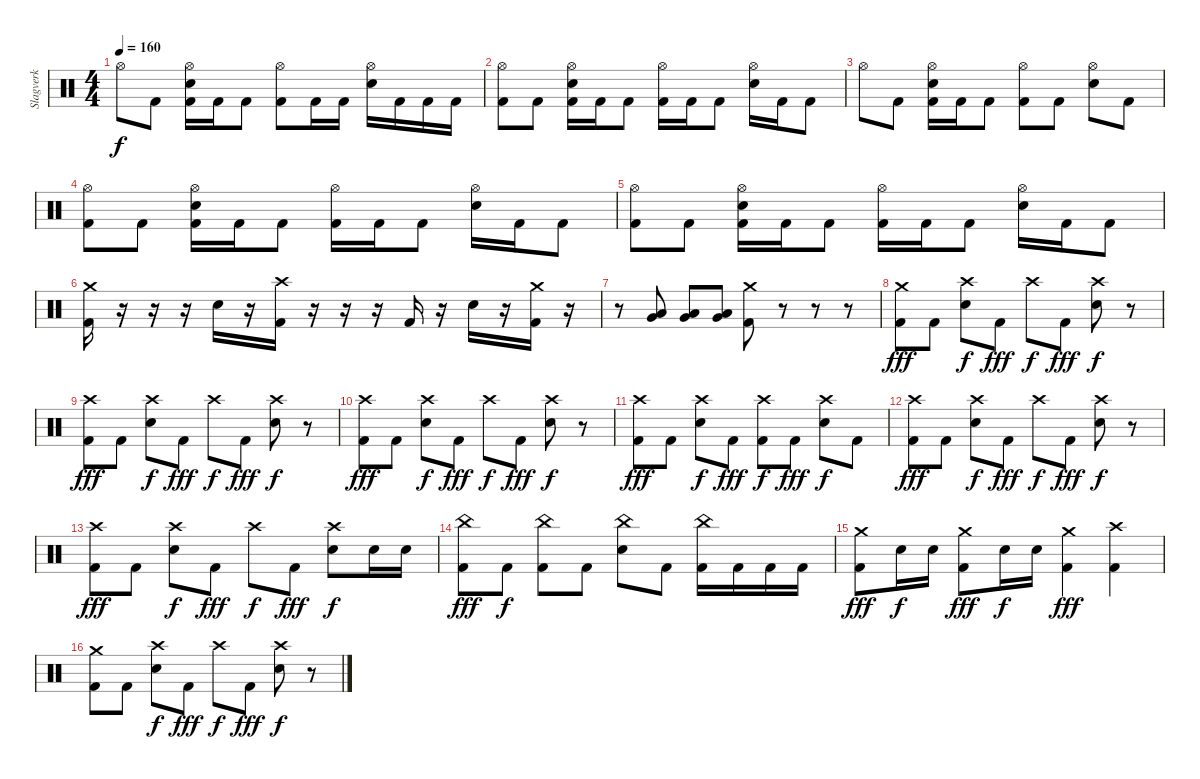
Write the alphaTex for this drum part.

\track ("Slagverk" "Slagverk") {instrument percussion}
\staff {score}
\articulation defaults
\ts (4 4)
\tempo 160
\clef neutral
\ks c "Hi-Hat (open)".8{dy f} "Kick (hit) 2".8
("Hi-Hat (open)" "Snare (hit) 2" "Kick (hit) 2").16 "Kick (hit) 2".16 "Kick (hit) 2".8 ("Hi-Hat (open)" "Kick (hit) 2").8 "Kick (hit) 2".16 "Kick (hit) 2".16 ("Hi-Hat (open)" "Snare (hit) 2").16 "Kick (hit) 2".16 "Kick (hit) 2".16 "Kick (hit) 2".16 |
("Hi-Hat (open)" "Kick (hit) 2").8 "Kick (hit) 2".8 ("Hi-Hat (open)" "Snare (hit) 2" "Kick (hit) 2").16 "Kick (hit) 2".16 "Kick (hit) 2".8 ("Hi-Hat (open)" "Kick (hit) 2").16 "Kick (hit) 2".16 "Kick (hit) 2".8 ("Hi-Hat (open)" "Snare (hit) 2").16 "Kick (hit) 2".16 "Kick (hit) 2".8 |
"Hi-Hat (open)".8 "Kick (hit) 2".8 ("Hi-Hat (open)" "Snare (hit) 2" "Kick (hit) 2").16 "Kick (hit) 2".16 "Kick (hit) 2".8 ("Hi-Hat (open)" "Kick (hit) 2").8 "Kick (hit) 2".8 ("Hi-Hat (open)" "Snare (hit) 2").8 "Kick (hit) 2".8 |
("Hi-Hat (open)" "Kick (hit) 2").8 "Kick (hit) 2".8 ("Hi-Hat (open)" "Snare (hit) 2" "Kick (hit) 2").16 "Kick (hit) 2".16 "Kick (hit) 2".8 ("Hi-Hat (open)" "Kick (hit) 2").16 "Kick (hit) 2".16 "Kick (hit) 2".8 ("Hi-Hat (open)" "Snare (hit) 2").16 "Kick (hit) 2".16 "Kick (hit) 2".8 |
("Hi-Hat (open)" "Kick (hit) 2").8 "Kick (hit) 2".8 ("Hi-Hat (open)" "Snare (hit) 2" "Kick (hit) 2").16 "Kick (hit) 2".16 "Kick (hit) 2".8 ("Hi-Hat (open)" "Kick (hit) 2").16 "Kick (hit) 2".16 "Kick (hit) 2".8 ("Hi-Hat (open)" "Snare (hit) 2").16 "Kick (hit) 2".16 "Kick (hit) 2".8 |
("Crash medium (hit)" "Kick (hit) 2").16 r.16 r.16 r.16 "Snare (hit) 2".16 r.16 ("Crash high (hit)" "Kick (hit) 2").16 r.16 r.16 r.16 "Kick (hit) 2".16 r.16 "Snare (hit) 2".16 r.16 ("Crash medium (hit)" "Kick (hit) 2").16 r.16 |
r.8 ("Very Low Tom (hit)" "Low Tom (hit)").8 ("Very Low Tom (hit)" "Low Tom (hit)").8 ("Very Low Tom (hit)" "Low Tom (hit)").8 ("Crash medium (hit)" "Kick (hit) 2").8 r.8 r.8 r.8 |
("Crash medium (hit)" "Kick (hit) 2").8{dy fff} "Kick (hit) 2".8 ("Crash high (hit)" "Snare (hit) 2").8{dy f} "Kick (hit) 2".8{dy fff} "Crash high (hit)".8{dy f} "Kick (hit) 2".8{dy fff} ("Crash high (hit)" "Snare (hit) 2").8{dy f} r.8 |
("Crash high (hit)" "Kick (hit) 2").8{dy fff} "Kick (hit) 2".8 ("Crash high (hit)" "Snare (hit) 2").8{dy f} "Kick (hit) 2".8{dy fff} "Crash high (hit)".8{dy f} "Kick (hit) 2".8{dy fff} ("Crash high (hit)" "Snare (hit) 2").8{dy f} r.8 |
("Crash high (hit)" "Kick (hit) 2").8{dy fff} "Kick (hit) 2".8 ("Crash high (hit)" "Snare (hit) 2").8{dy f} "Kick (hit) 2".8{dy fff} "Crash high (hit)".8{dy f} "Kick (hit) 2".8{dy fff} ("Crash high (hit)" "Snare (hit) 2").8{dy f} r.8 |
("Crash high (hit)" "Kick (hit) 2").8{dy fff} "Kick (hit) 2".8 ("Crash high (hit)" "Snare (hit) 2").8{dy f} "Kick (hit) 2".8{dy fff} ("Crash high (hit)" "Kick (hit) 2").8{dy f} "Kick (hit) 2".8{dy fff} ("Crash high (hit)" "Snare (hit) 2").8{dy f} "Kick (hit) 2".8 |
("Crash high (hit)" "Kick (hit) 2").8{dy fff} "Kick (hit) 2".8 ("Crash high (hit)" "Snare (hit) 2").8{dy f} "Kick (hit) 2".8{dy fff} "Crash high (hit)".8{dy f} "Kick (hit) 2".8{dy fff} ("Crash high (hit)" "Snare (hit) 2").8{dy f} r.8 |
("Crash high (hit)" "Kick (hit) 2").8{dy fff} "Kick (hit) 2".8 ("Crash high (hit)" "Snare (hit) 2").8{dy f} "Kick (hit) 2".8{dy fff} "Crash high (hit)".8{dy f} "Kick (hit) 2".8{dy fff} ("Crash high (hit)" "Snare (hit) 2").8{dy f} "Snare (hit) 2".16 "Snare (hit) 2".16 |
("China (hit)" "Kick (hit) 2").8{dy fff} "Kick (hit) 2".8{dy f} ("China (hit)" "Kick (hit) 2").8 "Kick (hit) 2".8 ("China (hit)" "Snare (hit) 2").8 "Kick (hit) 2".8 ("China (hit)" "Kick (hit) 2").16 "Kick (hit) 2".16 "Kick (hit) 2".16 "Kick (hit) 2".16 |
("Crash medium (hit)" "Kick (hit) 2").8{dy fff} "Snare (hit) 2".16{dy f} "Snare (hit) 2".16 ("Crash medium (hit)" "Kick (hit) 2").8{dy fff} "Snare (hit) 2".16{dy f} "Snare (hit) 2".16 ("Crash medium (hit)" "Kick (hit) 2").4{dy fff} ("Crash high (hit)" "Kick (hit) 2").4 |
("Crash medium (hit)" "Kick (hit) 2").8 "Kick (hit) 2".8 ("Crash high (hit)" "Snare (hit) 2").8{dy f} "Kick (hit) 2".8{dy fff} "Crash high (hit)".8{dy f} "Kick (hit) 2".8{dy fff} ("Crash high (hit)" "Snare (hit) 2").8{dy f} r.8
